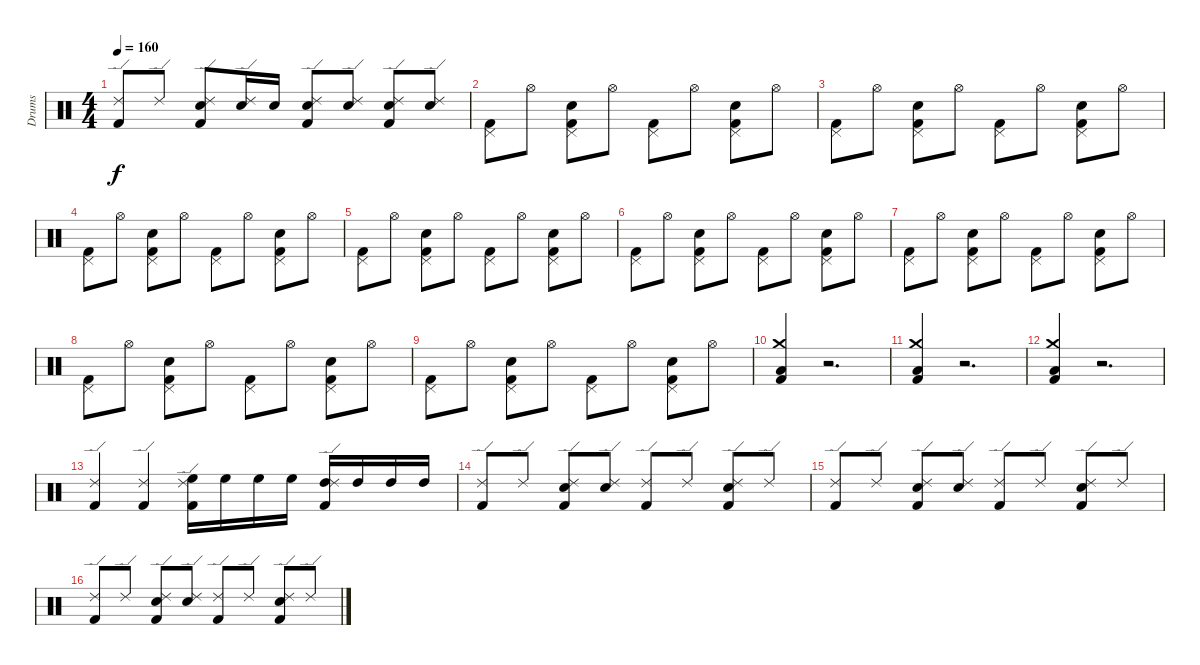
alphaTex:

\track ("Drums" "Drums") {instrument percussion}
\staff {score}
\articulation defaults
\ts (4 4)
\tempo 160
\clef neutral
\ks c
("Kick (hit) 2" "Ride (edge) 2").8{dy f} "Ride (edge) 2".8 ("Kick (hit) 2" "Ride (edge) 2" "Electric Snare (hit)").8 ("Electric Snare (hit)" "Ride (edge) 2").16 "Electric Snare (hit)".16 ("Kick (hit) 2" "Electric Snare (hit)" "Ride (edge) 2").8 ("Electric Snare (hit)" "Ride (edge) 2").8 ("Kick (hit) 2" "Electric Snare (hit)" "Ride (edge) 2").8 ("Electric Snare (hit)" "Ride (edge) 2").8 |
("Pedal Hi-Hat (hit)" "Kick (hit) 2").8 "Hi-Hat (open)".8 ("Pedal Hi-Hat (hit)" "Kick (hit) 2" "Electric Snare (hit)").8 "Hi-Hat (open)".8 ("Pedal Hi-Hat (hit)" "Kick (hit) 2").8 "Hi-Hat (open)".8 ("Pedal Hi-Hat (hit)" "Kick (hit) 2" "Electric Snare (hit)").8 "Hi-Hat (open)".8 |
("Pedal Hi-Hat (hit)" "Kick (hit) 2").8 "Hi-Hat (open)".8 ("Pedal Hi-Hat (hit)" "Kick (hit) 2" "Electric Snare (hit)").8 "Hi-Hat (open)".8 ("Pedal Hi-Hat (hit)" "Kick (hit) 2").8 "Hi-Hat (open)".8 ("Pedal Hi-Hat (hit)" "Kick (hit) 2" "Electric Snare (hit)").8 "Hi-Hat (open)".8 |
("Pedal Hi-Hat (hit)" "Kick (hit) 2").8 "Hi-Hat (open)".8 ("Pedal Hi-Hat (hit)" "Kick (hit) 2" "Electric Snare (hit)").8 "Hi-Hat (open)".8 ("Pedal Hi-Hat (hit)" "Kick (hit) 2").8 "Hi-Hat (open)".8 ("Pedal Hi-Hat (hit)" "Kick (hit) 2" "Electric Snare (hit)").8 "Hi-Hat (open)".8 |
("Pedal Hi-Hat (hit)" "Kick (hit) 2").8 "Hi-Hat (open)".8 ("Pedal Hi-Hat (hit)" "Electric Snare (hit)" "Kick (hit) 2").8 "Hi-Hat (open)".8 ("Pedal Hi-Hat (hit)" "Kick (hit) 2").8 "Hi-Hat (open)".8 ("Pedal Hi-Hat (hit)" "Electric Snare (hit)" "Kick (hit) 2").8 "Hi-Hat (open)".8 |
("Pedal Hi-Hat (hit)" "Kick (hit) 2").8 "Hi-Hat (open)".8 ("Pedal Hi-Hat (hit)" "Electric Snare (hit)" "Kick (hit) 2").8 "Hi-Hat (open)".8 ("Pedal Hi-Hat (hit)" "Kick (hit) 2").8 "Hi-Hat (open)".8 ("Pedal Hi-Hat (hit)" "Electric Snare (hit)" "Kick (hit) 2").8 "Hi-Hat (open)".8 |
("Pedal Hi-Hat (hit)" "Kick (hit) 2").8 "Hi-Hat (open)".8 ("Pedal Hi-Hat (hit)" "Electric Snare (hit)" "Kick (hit) 2").8 "Hi-Hat (open)".8 ("Pedal Hi-Hat (hit)" "Kick (hit) 2").8 "Hi-Hat (open)".8 ("Pedal Hi-Hat (hit)" "Electric Snare (hit)" "Kick (hit) 2").8 "Hi-Hat (open)".8 |
("Pedal Hi-Hat (hit)" "Kick (hit) 2").8 "Hi-Hat (open)".8 ("Pedal Hi-Hat (hit)" "Electric Snare (hit)" "Kick (hit) 2").8 "Hi-Hat (open)".8 ("Pedal Hi-Hat (hit)" "Kick (hit) 2").8 "Hi-Hat (open)".8 ("Pedal Hi-Hat (hit)" "Electric Snare (hit)" "Kick (hit) 2").8 "Hi-Hat (open)".8 |
("Pedal Hi-Hat (hit)" "Kick (hit) 2").8 "Hi-Hat (open)".8 ("Pedal Hi-Hat (hit)" "Electric Snare (hit)" "Kick (hit) 2").8 "Hi-Hat (open)".8 ("Pedal Hi-Hat (hit)" "Kick (hit) 2").8 "Hi-Hat (open)".8 ("Pedal Hi-Hat (hit)" "Electric Snare (hit)" "Kick (hit) 2").8 "Hi-Hat (open)".8 |
("Crash medium (hit)" "Low Tom (hit)" "Kick (hit) 2").4 r.2{d} |
("Crash medium (hit)" "Kick (hit) 2" "Low Tom (hit)").4 r.2{d} |
("Crash medium (hit)" "Low Tom (hit)" "Kick (hit) 2").4 r.2{d} |
("Kick (hit) 2" "Ride (edge) 2").4 ("Kick (hit) 2" "Ride (edge) 2").4 ("Kick (hit) 2" "High Floor Tom (hit)" "Ride (edge) 2").16 "High Floor Tom (hit)".16 "High Floor Tom (hit)".16 "High Floor Tom (hit)".16 ("Kick (hit) 2" "High Tom (hit)" "Ride (edge) 2").16 "High Tom (hit)".16 "High Tom (hit)".16 "High Tom (hit)".16 |
("Ride (edge) 2" "Kick (hit) 2").8 "Ride (edge) 2".8 ("Kick (hit) 2" "Ride (edge) 2" "Electric Snare (hit)").8 ("Ride (edge) 2" "Electric Snare (hit)").8 ("Ride (edge) 2" "Kick (hit) 2").8 "Ride (edge) 2".8 ("Kick (hit) 2" "Ride (edge) 2" "Electric Snare (hit)").8 "Ride (edge) 2".8 |
("Ride (edge) 2" "Kick (hit) 2").8 "Ride (edge) 2".8 ("Kick (hit) 2" "Ride (edge) 2" "Electric Snare (hit)").8 ("Ride (edge) 2" "Electric Snare (hit)").8 ("Ride (edge) 2" "Kick (hit) 2").8 "Ride (edge) 2".8 ("Kick (hit) 2" "Ride (edge) 2" "Electric Snare (hit)").8 "Ride (edge) 2".8 |
("Ride (edge) 2" "Kick (hit) 2").8 "Ride (edge) 2".8 ("Kick (hit) 2" "Ride (edge) 2" "Electric Snare (hit)").8 ("Ride (edge) 2" "Electric Snare (hit)").8 ("Ride (edge) 2" "Kick (hit) 2").8 "Ride (edge) 2".8 ("Kick (hit) 2" "Ride (edge) 2" "Electric Snare (hit)").8 "Ride (edge) 2".8
